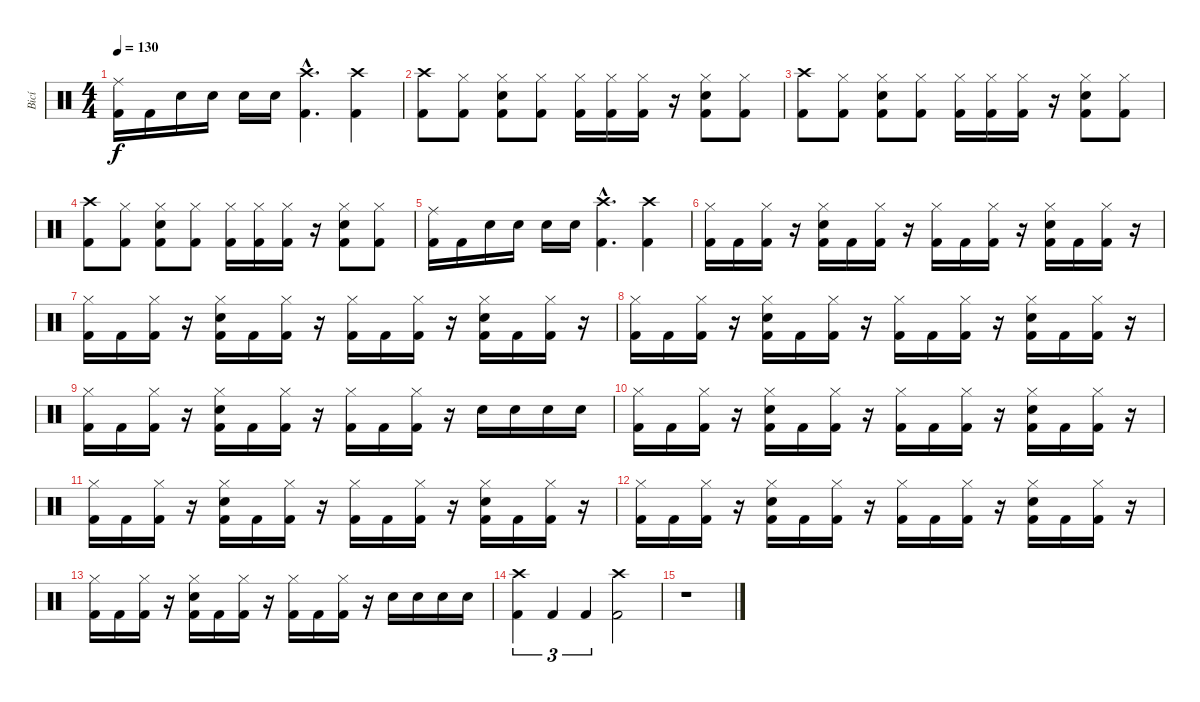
\track ("Bicí" "Bicí") {instrument percussion}
\staff {score}
\articulation defaults
\ts (4 4)
\tempo 130
\clef neutral
\ks c
("Ride (middle)" "Kick (hit) 2").16{dy f} "Kick (hit) 2".16 "Snare (hit) 2".16 "Snare (hit) 2".16 "Snare (hit) 2".16 "Snare (hit) 2".16 ("Crash high (hit)"{hac} "Kick (hit) 2"{hac}).4{d} ("Crash high (hit)" "Kick (hit) 2").4 |
("Crash high (hit)" "Kick (hit) 2").8 ("Hi-Hat (closed)" "Kick (hit) 2").8 ("Hi-Hat (closed)" "Snare (hit) 2" "Kick (hit) 2").8 ("Hi-Hat (closed)" "Kick (hit) 2").8 ("Hi-Hat (closed)" "Kick (hit) 2").16 ("Hi-Hat (closed)" "Kick (hit) 2").16 ("Hi-Hat (closed)" "Kick (hit) 2").16 r.16 ("Hi-Hat (closed)" "Snare (hit) 2" "Kick (hit) 2").8 ("Hi-Hat (closed)" "Kick (hit) 2").8 |
("Crash high (hit)" "Kick (hit) 2").8 ("Hi-Hat (closed)" "Kick (hit) 2").8 ("Hi-Hat (closed)" "Snare (hit) 2" "Kick (hit) 2").8 ("Hi-Hat (closed)" "Kick (hit) 2").8 ("Hi-Hat (closed)" "Kick (hit) 2").16 ("Hi-Hat (closed)" "Kick (hit) 2").16 ("Hi-Hat (closed)" "Kick (hit) 2").16 r.16 ("Hi-Hat (closed)" "Snare (hit) 2" "Kick (hit) 2").8 ("Hi-Hat (closed)" "Kick (hit) 2").8 |
("Crash high (hit)" "Kick (hit) 2").8 ("Hi-Hat (closed)" "Kick (hit) 2").8 ("Hi-Hat (closed)" "Snare (hit) 2" "Kick (hit) 2").8 ("Hi-Hat (closed)" "Kick (hit) 2").8 ("Hi-Hat (closed)" "Kick (hit) 2").16 ("Hi-Hat (closed)" "Kick (hit) 2").16 ("Hi-Hat (closed)" "Kick (hit) 2").16 r.16 ("Hi-Hat (closed)" "Snare (hit) 2" "Kick (hit) 2").8 ("Hi-Hat (closed)" "Kick (hit) 2").8 |
("Ride (middle)" "Kick (hit) 2").16 "Kick (hit) 2".16 "Snare (hit) 2".16 "Snare (hit) 2".16 "Snare (hit) 2".16 "Snare (hit) 2".16 ("Crash high (hit)"{hac} "Kick (hit) 2"{hac}).4{d} ("Crash high (hit)" "Kick (hit) 2").4 |
("Hi-Hat (closed)" "Kick (hit) 2").16 "Kick (hit) 2".16 ("Hi-Hat (closed)" "Kick (hit) 2").16 r.16 ("Hi-Hat (closed)" "Snare (hit) 2" "Kick (hit) 2").16 "Kick (hit) 2".16 ("Hi-Hat (closed)" "Kick (hit) 2").16 r.16 ("Hi-Hat (closed)" "Kick (hit) 2").16 "Kick (hit) 2".16 ("Hi-Hat (closed)" "Kick (hit) 2").16 r.16 ("Hi-Hat (closed)" "Snare (hit) 2" "Kick (hit) 2").16 "Kick (hit) 2".16 ("Hi-Hat (closed)" "Kick (hit) 2").16 r.16 |
("Hi-Hat (closed)" "Kick (hit) 2").16 "Kick (hit) 2".16 ("Hi-Hat (closed)" "Kick (hit) 2").16 r.16 ("Hi-Hat (closed)" "Snare (hit) 2" "Kick (hit) 2").16 "Kick (hit) 2".16 ("Hi-Hat (closed)" "Kick (hit) 2").16 r.16 ("Hi-Hat (closed)" "Kick (hit) 2").16 "Kick (hit) 2".16 ("Hi-Hat (closed)" "Kick (hit) 2").16 r.16 ("Hi-Hat (closed)" "Snare (hit) 2" "Kick (hit) 2").16 "Kick (hit) 2".16 ("Hi-Hat (closed)" "Kick (hit) 2").16 r.16 |
("Hi-Hat (closed)" "Kick (hit) 2").16 "Kick (hit) 2".16 ("Hi-Hat (closed)" "Kick (hit) 2").16 r.16 ("Hi-Hat (closed)" "Snare (hit) 2" "Kick (hit) 2").16 "Kick (hit) 2".16 ("Hi-Hat (closed)" "Kick (hit) 2").16 r.16 ("Hi-Hat (closed)" "Kick (hit) 2").16 "Kick (hit) 2".16 ("Hi-Hat (closed)" "Kick (hit) 2").16 r.16 ("Hi-Hat (closed)" "Snare (hit) 2" "Kick (hit) 2").16 "Kick (hit) 2".16 ("Hi-Hat (closed)" "Kick (hit) 2").16 r.16 |
("Hi-Hat (closed)" "Kick (hit) 2").16 "Kick (hit) 2".16 ("Hi-Hat (closed)" "Kick (hit) 2").16 r.16 ("Hi-Hat (closed)" "Snare (hit) 2" "Kick (hit) 2").16 "Kick (hit) 2".16 ("Hi-Hat (closed)" "Kick (hit) 2").16 r.16 ("Hi-Hat (closed)" "Kick (hit) 2").16 "Kick (hit) 2".16 ("Hi-Hat (closed)" "Kick (hit) 2").16 r.16 "Snare (hit) 2".16 "Snare (hit) 2".16 "Snare (hit) 2".16 "Snare (hit) 2".16 |
("Hi-Hat (closed)" "Kick (hit) 2").16 "Kick (hit) 2".16 ("Hi-Hat (closed)" "Kick (hit) 2").16 r.16 ("Hi-Hat (closed)" "Snare (hit) 2" "Kick (hit) 2").16 "Kick (hit) 2".16 ("Hi-Hat (closed)" "Kick (hit) 2").16 r.16 ("Hi-Hat (closed)" "Kick (hit) 2").16 "Kick (hit) 2".16 ("Hi-Hat (closed)" "Kick (hit) 2").16 r.16 ("Hi-Hat (closed)" "Snare (hit) 2" "Kick (hit) 2").16 "Kick (hit) 2".16 ("Hi-Hat (closed)" "Kick (hit) 2").16 r.16 |
("Hi-Hat (closed)" "Kick (hit) 2").16 "Kick (hit) 2".16 ("Hi-Hat (closed)" "Kick (hit) 2").16 r.16 ("Hi-Hat (closed)" "Snare (hit) 2" "Kick (hit) 2").16 "Kick (hit) 2".16 ("Hi-Hat (closed)" "Kick (hit) 2").16 r.16 ("Hi-Hat (closed)" "Kick (hit) 2").16 "Kick (hit) 2".16 ("Hi-Hat (closed)" "Kick (hit) 2").16 r.16 ("Hi-Hat (closed)" "Snare (hit) 2" "Kick (hit) 2").16 "Kick (hit) 2".16 ("Hi-Hat (closed)" "Kick (hit) 2").16 r.16 |
("Hi-Hat (closed)" "Kick (hit) 2").16 "Kick (hit) 2".16 ("Hi-Hat (closed)" "Kick (hit) 2").16 r.16 ("Hi-Hat (closed)" "Snare (hit) 2" "Kick (hit) 2").16 "Kick (hit) 2".16 ("Hi-Hat (closed)" "Kick (hit) 2").16 r.16 ("Hi-Hat (closed)" "Kick (hit) 2").16 "Kick (hit) 2".16 ("Hi-Hat (closed)" "Kick (hit) 2").16 r.16 ("Hi-Hat (closed)" "Snare (hit) 2" "Kick (hit) 2").16 "Kick (hit) 2".16 ("Hi-Hat (closed)" "Kick (hit) 2").16 r.16 |
("Hi-Hat (closed)" "Kick (hit) 2").16 "Kick (hit) 2".16 ("Hi-Hat (closed)" "Kick (hit) 2").16 r.16 ("Hi-Hat (closed)" "Snare (hit) 2" "Kick (hit) 2").16 "Kick (hit) 2".16 ("Hi-Hat (closed)" "Kick (hit) 2").16 r.16 ("Hi-Hat (closed)" "Kick (hit) 2").16 "Kick (hit) 2".16 ("Hi-Hat (closed)" "Kick (hit) 2").16 r.16 "Snare (hit) 2".16 "Snare (hit) 2".16 "Snare (hit) 2".16 "Snare (hit) 2".16 |
("Crash high (hit)" "Kick (hit) 2").4{tu (3 2)} "Kick (hit) 2".4{tu (3 2)} "Kick (hit) 2".4{tu (3 2)} ("Crash high (hit)" "Kick (hit) 2").2 |
r.1
